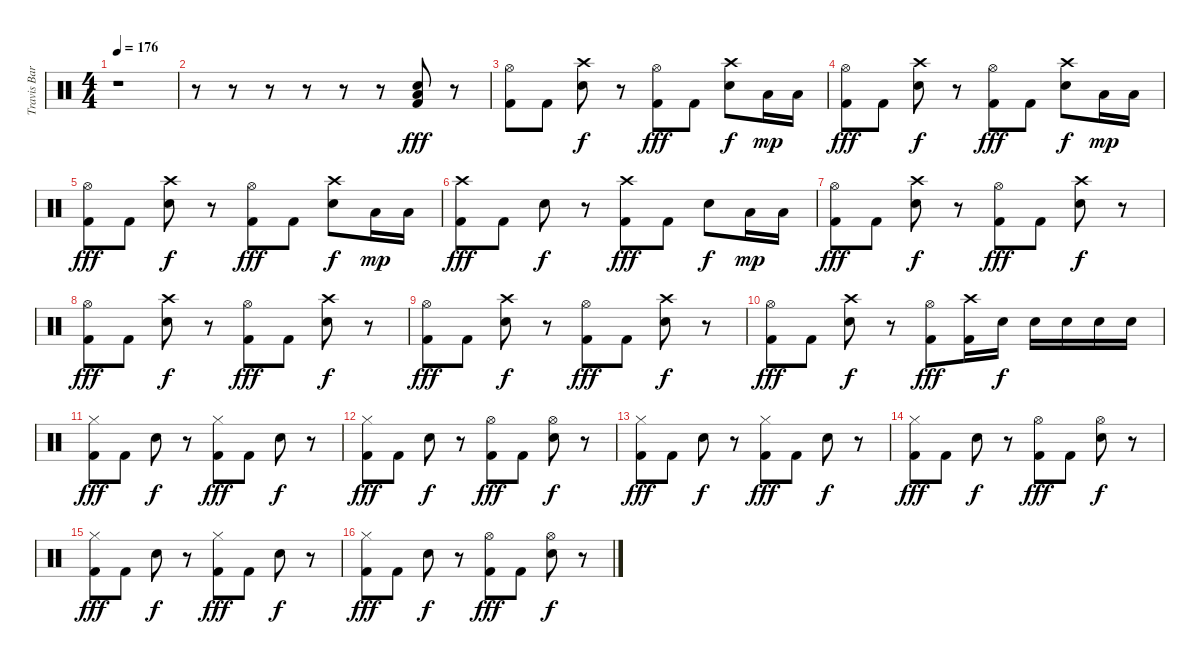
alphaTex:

\track ("Travis Barker - Drums" "Travis Bar") {instrument percussion}
\staff {score}
\articulation defaults
\ts (4 4)
\tempo 176
\clef neutral
\ks c
r.1{dy fff} |
r.8 r.8 r.8 r.8 r.8 r.8 ("Kick (hit) 2" "Low Tom (hit)" "Snare (hit) 2").8 r.8 |
("Kick (hit) 2" "Hi-Hat (open)").8 "Kick (hit) 2".8 ("Snare (hit) 2" "Crash high (hit)").8{dy f} r.8 ("Kick (hit) 2" "Hi-Hat (open)").8{dy fff} "Kick (hit) 2".8 ("Snare (hit) 2" "Crash high (hit)").8{dy f} "Low Tom (hit)".16{dy mp} "Low Tom (hit)".16 |
("Kick (hit) 2" "Hi-Hat (open)").8{dy fff} "Kick (hit) 2".8 ("Snare (hit) 2" "Crash high (hit)").8{dy f} r.8 ("Kick (hit) 2" "Hi-Hat (open)").8{dy fff} "Kick (hit) 2".8 ("Snare (hit) 2" "Crash high (hit)").8{dy f} "Low Tom (hit)".16{dy mp} "Low Tom (hit)".16 |
("Kick (hit) 2" "Hi-Hat (open)").8{dy fff} "Kick (hit) 2".8 ("Snare (hit) 2" "Crash high (hit)").8{dy f} r.8 ("Kick (hit) 2" "Hi-Hat (open)").8{dy fff} "Kick (hit) 2".8 ("Snare (hit) 2" "Crash high (hit)").8{dy f} "Low Tom (hit)".16{dy mp} "Low Tom (hit)".16 |
("Kick (hit) 2" "Crash high (hit)").8{dy fff} "Kick (hit) 2".8 "Snare (hit) 2".8{dy f} r.8 ("Kick (hit) 2" "Crash high (hit)").8{dy fff} "Kick (hit) 2".8 "Snare (hit) 2".8{dy f} "Low Tom (hit)".16{dy mp} "Low Tom (hit)".16 |
("Kick (hit) 2" "Hi-Hat (open)").8{dy fff} "Kick (hit) 2".8 ("Snare (hit) 2" "Crash high (hit)").8{dy f} r.8 ("Kick (hit) 2" "Hi-Hat (open)").8{dy fff} "Kick (hit) 2".8 ("Snare (hit) 2" "Crash high (hit)").8{dy f} r.8 |
("Kick (hit) 2" "Hi-Hat (open)").8{dy fff} "Kick (hit) 2".8 ("Snare (hit) 2" "Crash high (hit)").8{dy f} r.8 ("Kick (hit) 2" "Hi-Hat (open)").8{dy fff} "Kick (hit) 2".8 ("Snare (hit) 2" "Crash high (hit)").8{dy f} r.8 |
("Kick (hit) 2" "Hi-Hat (open)").8{dy fff} "Kick (hit) 2".8 ("Snare (hit) 2" "Crash high (hit)").8{dy f} r.8 ("Kick (hit) 2" "Hi-Hat (open)").8{dy fff} "Kick (hit) 2".8 ("Snare (hit) 2" "Crash high (hit)").8{dy f} r.8 |
("Kick (hit) 2" "Hi-Hat (open)").8{dy fff} "Kick (hit) 2".8 ("Snare (hit) 2" "Crash high (hit)").8{dy f} r.8 ("Kick (hit) 2" "Hi-Hat (open)").8{dy fff} ("Kick (hit) 2" "Crash high (hit)").16 "Snare (hit) 2".16{dy f} "Snare (hit) 2".16 "Snare (hit) 2".16 "Snare (hit) 2".16 "Snare (hit) 2".16 |
("Kick (hit) 2" "Hi-Hat (closed)").8{dy fff} "Kick (hit) 2".8 "Snare (hit) 2".8{dy f} r.8 ("Kick (hit) 2" "Hi-Hat (closed)").8{dy fff} "Kick (hit) 2".8 "Snare (hit) 2".8{dy f} r.8 |
("Kick (hit) 2" "Hi-Hat (closed)").8{dy fff} "Kick (hit) 2".8 "Snare (hit) 2".8{dy f} r.8 ("Kick (hit) 2" "Hi-Hat (open)").8{dy fff} "Kick (hit) 2".8 ("Snare (hit) 2" "Hi-Hat (open)").8{dy f} r.8 |
("Kick (hit) 2" "Hi-Hat (closed)").8{dy fff} "Kick (hit) 2".8 "Snare (hit) 2".8{dy f} r.8 ("Kick (hit) 2" "Hi-Hat (closed)").8{dy fff} "Kick (hit) 2".8 "Snare (hit) 2".8{dy f} r.8 |
("Kick (hit) 2" "Hi-Hat (closed)").8{dy fff} "Kick (hit) 2".8 "Snare (hit) 2".8{dy f} r.8 ("Kick (hit) 2" "Hi-Hat (open)").8{dy fff} "Kick (hit) 2".8 ("Snare (hit) 2" "Hi-Hat (open)").8{dy f} r.8 |
("Kick (hit) 2" "Hi-Hat (closed)").8{dy fff} "Kick (hit) 2".8 "Snare (hit) 2".8{dy f} r.8 ("Kick (hit) 2" "Hi-Hat (closed)").8{dy fff} "Kick (hit) 2".8 "Snare (hit) 2".8{dy f} r.8 |
("Kick (hit) 2" "Hi-Hat (closed)").8{dy fff} "Kick (hit) 2".8 "Snare (hit) 2".8{dy f} r.8 ("Kick (hit) 2" "Hi-Hat (open)").8{dy fff} "Kick (hit) 2".8 ("Snare (hit) 2" "Hi-Hat (open)").8{dy f} r.8
